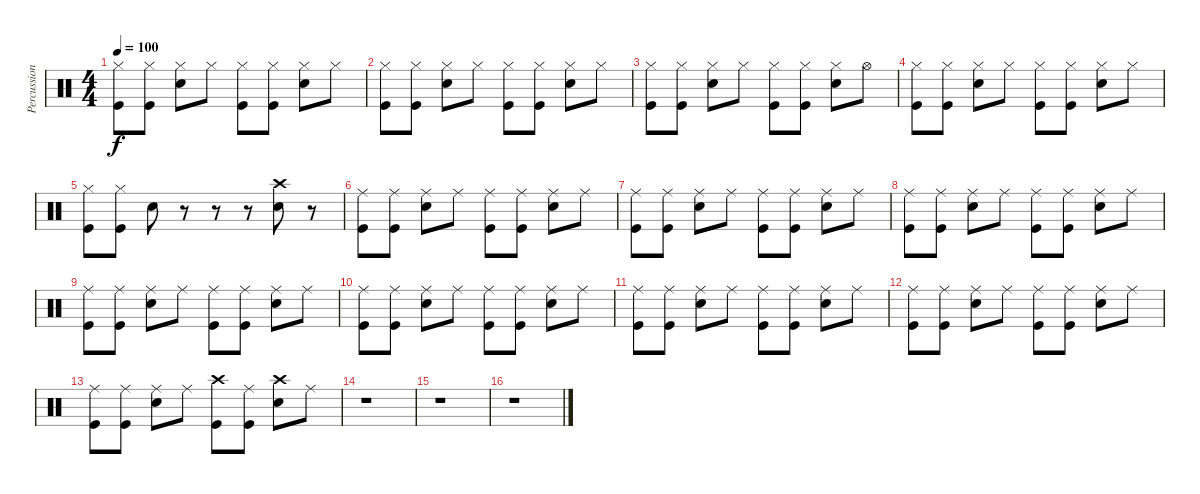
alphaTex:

\track ("Percussions" "Percussion") {instrument percussion}
\staff {score}
\articulation defaults
\ts (4 4)
\tempo 100
\clef neutral
\ks c
("Hi-Hat (closed)" "Kick (hit)").8{dy f} ("Hi-Hat (closed)" "Kick (hit)").8 ("Hi-Hat (closed)" "Electric Snare (hit)").8 "Hi-Hat (closed)".8 ("Hi-Hat (closed)" "Kick (hit)").8 ("Hi-Hat (closed)" "Kick (hit)").8 ("Hi-Hat (closed)" "Electric Snare (hit)").8{volume 16} "Hi-Hat (closed)".8 |
("Hi-Hat (closed)" "Kick (hit)").8 ("Hi-Hat (closed)" "Kick (hit)").8 ("Hi-Hat (closed)" "Electric Snare (hit)").8 "Hi-Hat (closed)".8 ("Hi-Hat (closed)" "Kick (hit)").8 ("Hi-Hat (closed)" "Kick (hit)").8 ("Hi-Hat (closed)" "Electric Snare (hit)").8 "Hi-Hat (closed)".8 |
("Hi-Hat (closed)" "Kick (hit)").8 ("Hi-Hat (closed)" "Kick (hit)").8 ("Hi-Hat (closed)" "Electric Snare (hit)").8 "Hi-Hat (closed)".8 ("Hi-Hat (closed)" "Kick (hit)").8 ("Hi-Hat (closed)" "Kick (hit)").8 ("Hi-Hat (closed)" "Electric Snare (hit)").8 "Hi-Hat (open)".8 |
("Hi-Hat (closed)" "Kick (hit)").8 ("Hi-Hat (closed)" "Kick (hit)").8 ("Hi-Hat (closed)" "Electric Snare (hit)").8 "Hi-Hat (closed)".8 ("Hi-Hat (closed)" "Kick (hit)").8 ("Hi-Hat (closed)" "Kick (hit)").8 ("Hi-Hat (closed)" "Electric Snare (hit)").8 "Hi-Hat (closed)".8 |
("Hi-Hat (closed)" "Kick (hit)").8 ("Hi-Hat (closed)" "Kick (hit)").8 "Electric Snare (hit)".8 r.8 r.8 r.8 ("Crash high (hit)" "Electric Snare (hit)").8{volume 16} r.8 |
("Ride (middle)" "Kick (hit)").8 ("Ride (middle)" "Kick (hit)").8 ("Ride (middle)" "Electric Snare (hit)").8 "Ride (middle)".8 ("Ride (middle)" "Kick (hit)").8 ("Ride (middle)" "Kick (hit)").8 ("Ride (middle)" "Electric Snare (hit)").8 "Ride (middle)".8 |
("Ride (middle)" "Kick (hit)").8 ("Ride (middle)" "Kick (hit)").8 ("Ride (middle)" "Electric Snare (hit)").8 "Ride (middle)".8 ("Ride (middle)" "Kick (hit)").8 ("Ride (middle)" "Kick (hit)").8 ("Ride (middle)" "Electric Snare (hit)").8 "Ride (middle)".8 |
("Ride (middle)" "Kick (hit)").8 ("Ride (middle)" "Kick (hit)").8 ("Ride (middle)" "Electric Snare (hit)").8 "Ride (middle)".8 ("Ride (middle)" "Kick (hit)").8 ("Ride (middle)" "Kick (hit)").8 ("Ride (middle)" "Electric Snare (hit)").8 "Ride (middle)".8 |
("Ride (middle)" "Kick (hit)").8 ("Ride (middle)" "Kick (hit)").8 ("Ride (middle)" "Electric Snare (hit)").8 "Ride (middle)".8 ("Ride (middle)" "Kick (hit)").8 ("Ride (middle)" "Kick (hit)").8 ("Ride (middle)" "Electric Snare (hit)").8 "Ride (middle)".8 |
("Ride (middle)" "Kick (hit)").8 ("Ride (middle)" "Kick (hit)").8 ("Ride (middle)" "Electric Snare (hit)").8 "Ride (middle)".8 ("Ride (middle)" "Kick (hit)").8 ("Ride (middle)" "Kick (hit)").8 ("Ride (middle)" "Electric Snare (hit)").8 "Ride (middle)".8 |
("Ride (middle)" "Kick (hit)").8 ("Ride (middle)" "Kick (hit)").8 ("Ride (middle)" "Electric Snare (hit)").8 "Ride (middle)".8 ("Ride (middle)" "Kick (hit)").8 ("Ride (middle)" "Kick (hit)").8 ("Ride (middle)" "Electric Snare (hit)").8 "Ride (middle)".8 |
("Ride (middle)" "Kick (hit)").8 ("Ride (middle)" "Kick (hit)").8 ("Ride (middle)" "Electric Snare (hit)").8 "Ride (middle)".8 ("Ride (middle)" "Kick (hit)").8 ("Ride (middle)" "Kick (hit)").8 ("Ride (middle)" "Electric Snare (hit)").8 "Ride (middle)".8 |
("Ride (middle)" "Kick (hit)").8 ("Ride (middle)" "Kick (hit)").8 ("Ride (middle)" "Electric Snare (hit)").8 "Ride (middle)".8 ("Crash high (hit)" "Kick (hit)").8 ("Ride (middle)" "Kick (hit)").8 ("Crash high (hit)" "Electric Snare (hit)").8 "Ride (middle)".8 |
r.1 |
r.1 |
r.1
